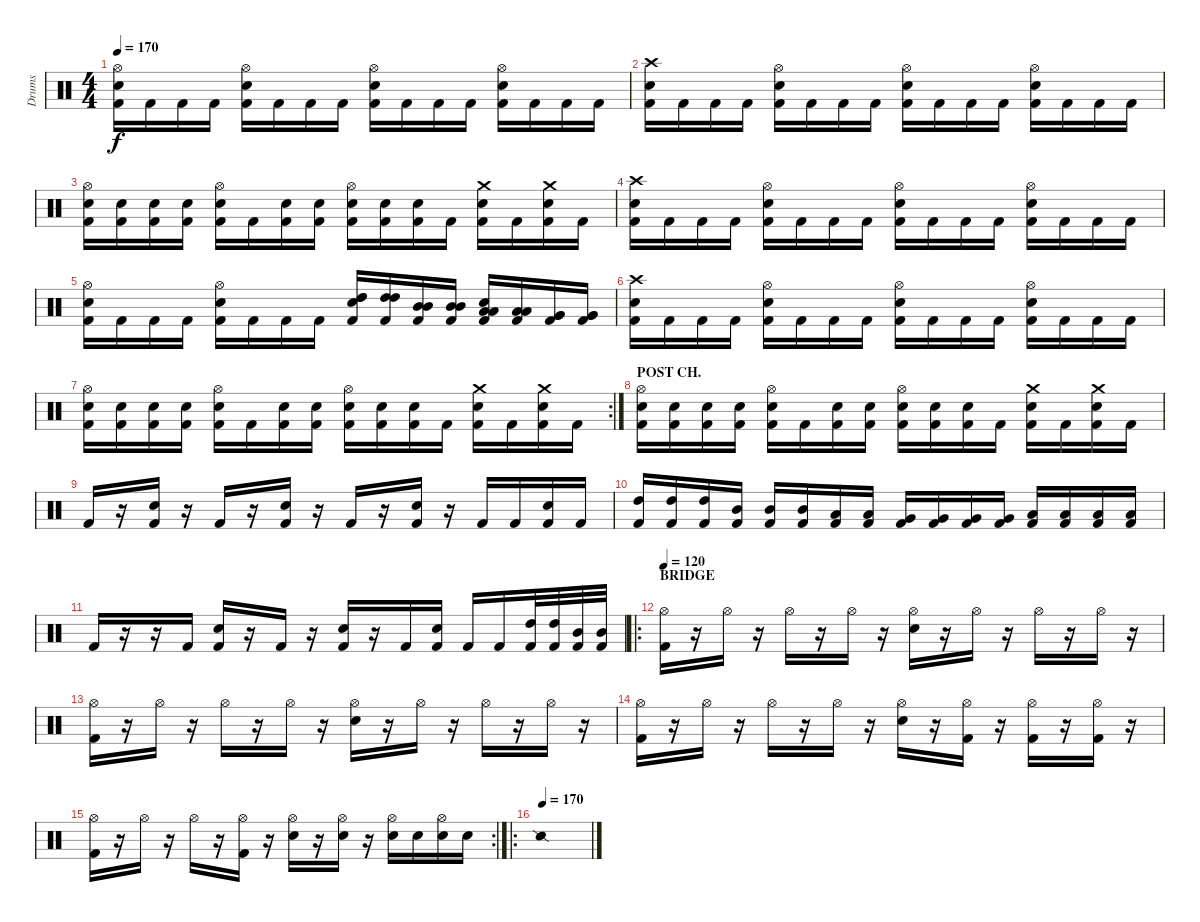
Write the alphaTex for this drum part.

\track ("Drums" "Drums") {instrument percussion}
\staff {score}
\articulation defaults
\ts (4 4)
\tempo 170
\clef neutral
\ks c
("Hi-Hat (open)" "Electric Snare (hit)" "Kick (hit) 2").16{dy f} "Kick (hit) 2".16 "Kick (hit) 2".16 "Kick (hit) 2".16 ("Hi-Hat (open)" "Electric Snare (hit)" "Kick (hit) 2").16 "Kick (hit) 2".16 "Kick (hit) 2".16 "Kick (hit) 2".16 ("Hi-Hat (open)" "Electric Snare (hit)" "Kick (hit) 2").16 "Kick (hit) 2".16 "Kick (hit) 2".16 "Kick (hit) 2".16 ("Hi-Hat (open)" "Electric Snare (hit)" "Kick (hit) 2").16 "Kick (hit) 2".16 "Kick (hit) 2".16 "Kick (hit) 2".16 |
("Crash high (hit)" "Electric Snare (hit)" "Kick (hit) 2").16 "Kick (hit) 2".16 "Kick (hit) 2".16 "Kick (hit) 2".16 ("Hi-Hat (open)" "Electric Snare (hit)" "Kick (hit) 2").16 "Kick (hit) 2".16 "Kick (hit) 2".16 "Kick (hit) 2".16 ("Hi-Hat (open)" "Electric Snare (hit)" "Kick (hit) 2").16 "Kick (hit) 2".16 "Kick (hit) 2".16 "Kick (hit) 2".16 ("Hi-Hat (open)" "Electric Snare (hit)" "Kick (hit) 2").16 "Kick (hit) 2".16 "Kick (hit) 2".16 "Kick (hit) 2".16 |
("Hi-Hat (open)" "Electric Snare (hit)" "Kick (hit) 2").16 ("Electric Snare (hit)" "Kick (hit) 2").16 ("Electric Snare (hit)" "Kick (hit) 2").16 ("Electric Snare (hit)" "Kick (hit) 2").16 ("Hi-Hat (open)" "Electric Snare (hit)" "Kick (hit) 2").16 "Kick (hit) 2".16 ("Electric Snare (hit)" "Kick (hit) 2").16 ("Electric Snare (hit)" "Kick (hit) 2").16 ("Hi-Hat (open)" "Electric Snare (hit)" "Kick (hit) 2").16 ("Electric Snare (hit)" "Kick (hit) 2").16 ("Electric Snare (hit)" "Kick (hit) 2").16 "Kick (hit) 2".16 ("Crash medium (hit)" "Electric Snare (hit)" "Kick (hit) 2").16 "Kick (hit) 2".16 ("Crash medium (hit)" "Electric Snare (hit)" "Kick (hit) 2").16 "Kick (hit) 2".16 |
("Crash high (hit)" "Electric Snare (hit)" "Kick (hit) 2").16 "Kick (hit) 2".16 "Kick (hit) 2".16 "Kick (hit) 2".16 ("Hi-Hat (open)" "Electric Snare (hit)" "Kick (hit) 2").16 "Kick (hit) 2".16 "Kick (hit) 2".16 "Kick (hit) 2".16 ("Hi-Hat (open)" "Electric Snare (hit)" "Kick (hit) 2").16 "Kick (hit) 2".16 "Kick (hit) 2".16 "Kick (hit) 2".16 ("Hi-Hat (open)" "Electric Snare (hit)" "Kick (hit) 2").16 "Kick (hit) 2".16 "Kick (hit) 2".16 "Kick (hit) 2".16 |
("Hi-Hat (open)" "Electric Snare (hit)" "Kick (hit) 2").16 "Kick (hit) 2".16 "Kick (hit) 2".16 "Kick (hit) 2".16 ("Hi-Hat (open)" "Electric Snare (hit)" "Kick (hit) 2").16 "Kick (hit) 2".16 "Kick (hit) 2".16 "Kick (hit) 2".16 ("High Tom (hit)" "High Tom (hit)" "Electric Snare (hit)" "Kick (hit) 2").16 ("High Tom (hit)" "High Tom (hit)" "Kick (hit) 2").16 ("Mid Tom (hit)" "Mid Tom (hit)" "Kick (hit) 2").16 ("Mid Tom (hit)" "Mid Tom (hit)" "Kick (hit) 2").16 ("Low Tom (hit)" "Low Tom (hit)" "Electric Snare (hit)" "Kick (hit) 2").16 ("Low Tom (hit)" "Low Tom (hit)" "Kick (hit) 2").16 ("Very Low Tom (hit)" "Very Low Tom (hit)" "Kick (hit) 2").16 ("Very Low Tom (hit)" "Very Low Tom (hit)" "Kick (hit) 2").16 |
("Crash high (hit)" "Electric Snare (hit)" "Kick (hit) 2").16 "Kick (hit) 2".16 "Kick (hit) 2".16 "Kick (hit) 2".16 ("Hi-Hat (open)" "Electric Snare (hit)" "Kick (hit) 2").16 "Kick (hit) 2".16 "Kick (hit) 2".16 "Kick (hit) 2".16 ("Hi-Hat (open)" "Electric Snare (hit)" "Kick (hit) 2").16 "Kick (hit) 2".16 "Kick (hit) 2".16 "Kick (hit) 2".16 ("Hi-Hat (open)" "Electric Snare (hit)" "Kick (hit) 2").16 "Kick (hit) 2".16 "Kick (hit) 2".16 "Kick (hit) 2".16 |
\rc 2
("Hi-Hat (open)" "Electric Snare (hit)" "Kick (hit) 2").16 ("Electric Snare (hit)" "Kick (hit) 2").16 ("Electric Snare (hit)" "Kick (hit) 2").16 ("Electric Snare (hit)" "Kick (hit) 2").16 ("Hi-Hat (open)" "Electric Snare (hit)" "Kick (hit) 2").16 "Kick (hit) 2".16 ("Electric Snare (hit)" "Kick (hit) 2").16 ("Electric Snare (hit)" "Kick (hit) 2").16 ("Hi-Hat (open)" "Electric Snare (hit)" "Kick (hit) 2").16 ("Electric Snare (hit)" "Kick (hit) 2").16 ("Electric Snare (hit)" "Kick (hit) 2").16 "Kick (hit) 2".16 ("Crash medium (hit)" "Electric Snare (hit)" "Kick (hit) 2").16 "Kick (hit) 2".16 ("Crash medium (hit)" "Electric Snare (hit)" "Kick (hit) 2").16 "Kick (hit) 2".16 |
\section ("" "POST CH.")
("Hi-Hat (open)" "Electric Snare (hit)" "Kick (hit) 2").16 ("Electric Snare (hit)" "Kick (hit) 2").16 ("Electric Snare (hit)" "Kick (hit) 2").16 ("Electric Snare (hit)" "Kick (hit) 2").16 ("Hi-Hat (open)" "Electric Snare (hit)" "Kick (hit) 2").16 "Kick (hit) 2".16 ("Electric Snare (hit)" "Kick (hit) 2").16 ("Electric Snare (hit)" "Kick (hit) 2").16 ("Hi-Hat (open)" "Electric Snare (hit)" "Kick (hit) 2").16 ("Electric Snare (hit)" "Kick (hit) 2").16 ("Electric Snare (hit)" "Kick (hit) 2").16 "Kick (hit) 2".16 ("Crash medium (hit)" "Electric Snare (hit)" "Kick (hit) 2").16 "Kick (hit) 2".16 ("Crash medium (hit)" "Electric Snare (hit)" "Kick (hit) 2").16 "Kick (hit) 2".16 |
"Kick (hit) 2".16 r.16 ("Electric Snare (hit)" "Kick (hit) 2").16 r.16 "Kick (hit) 2".16 r.16 ("Electric Snare (hit)" "Kick (hit) 2").16 r.16 "Kick (hit) 2".16 r.16 ("Electric Snare (hit)" "Kick (hit) 2").16 r.16 "Kick (hit) 2".16 "Kick (hit) 2".16 ("Electric Snare (hit)" "Kick (hit) 2").16 "Kick (hit) 2".16 |
("High Tom (hit)" "Kick (hit) 2").16 ("High Tom (hit)" "Kick (hit) 2").16 ("High Tom (hit)" "Kick (hit) 2").16 ("Mid Tom (hit)" "Kick (hit) 2").16 ("Mid Tom (hit)" "Kick (hit) 2").16 ("Mid Tom (hit)" "Kick (hit) 2").16 ("Low Tom (hit)" "Kick (hit) 2").16 ("Low Tom (hit)" "Kick (hit) 2").16 ("Very Low Tom (hit)" "Kick (hit) 2").16 ("Very Low Tom (hit)" "Kick (hit) 2").16 ("Very Low Tom (hit)" "Kick (hit) 2").16 ("Very Low Tom (hit)" "Kick (hit) 2").16 ("Low Floor Tom (hit)" "Kick (hit) 2").16 ("Low Floor Tom (hit)" "Kick (hit) 2").16 ("Low Floor Tom (hit)" "Kick (hit) 2").16 ("Low Floor Tom (hit)" "Kick (hit) 2").16 |
"Kick (hit) 2".16 r.16 r.16 "Kick (hit) 2".16 ("Electric Snare (hit)" "Kick (hit) 2").16 r.16 "Kick (hit) 2".16 r.16 ("Electric Snare (hit)" "Kick (hit) 2").16 r.16 "Kick (hit) 2".16 ("Electric Snare (hit)" "Kick (hit) 2").16 "Kick (hit) 2".16 "Kick (hit) 2".16 ("High Tom (hit)" "Kick (hit) 2").32 ("High Tom (hit)" "Kick (hit) 2").32 ("Mid Tom (hit)" "Kick (hit) 2").32 ("Mid Tom (hit)" "Kick (hit) 2").32 |
\ro
\section ("" "BRIDGE")
\tempo 120
("Hi-Hat (open)" "Kick (hit) 2").16 r.16 "Hi-Hat (open)".16 r.16 "Hi-Hat (open)".16 r.16 "Hi-Hat (open)".16 r.16 ("Hi-Hat (open)" "Electric Snare (hit)").16 r.16 "Hi-Hat (open)".16 r.16 "Hi-Hat (open)".16 r.16 "Hi-Hat (open)".16 r.16 |
("Hi-Hat (open)" "Kick (hit) 2").16 r.16 "Hi-Hat (open)".16 r.16 "Hi-Hat (open)".16 r.16 "Hi-Hat (open)".16 r.16 ("Hi-Hat (open)" "Electric Snare (hit)").16 r.16 "Hi-Hat (open)".16 r.16 "Hi-Hat (open)".16 r.16 "Hi-Hat (open)".16 r.16 |
("Hi-Hat (open)" "Kick (hit) 2").16 r.16 "Hi-Hat (open)".16 r.16 "Hi-Hat (open)".16 r.16 "Hi-Hat (open)".16 r.16 ("Hi-Hat (open)" "Electric Snare (hit)").16 r.16 ("Hi-Hat (open)" "Kick (hit) 2").16 r.16 ("Hi-Hat (open)" "Kick (hit) 2").16 r.16 ("Hi-Hat (open)" "Kick (hit) 2").16 r.16 |
\rc 2
("Hi-Hat (open)" "Kick (hit) 2").16 r.16 "Hi-Hat (open)".16 r.16 "Hi-Hat (open)".16 r.16 ("Hi-Hat (open)" "Kick (hit) 2").16 r.16 ("Hi-Hat (open)" "Electric Snare (hit)").16 r.16 ("Hi-Hat (open)" "Electric Snare (hit)").16 r.16 ("Hi-Hat (open)" "Electric Snare (hit)").16 "Electric Snare (hit)".16 ("Hi-Hat (open)" "Electric Snare (hit)").16 "Electric Snare (hit)".16 |
\ro
\tempo 120
\tempo (170)
"Snare (side stick) 2".1
